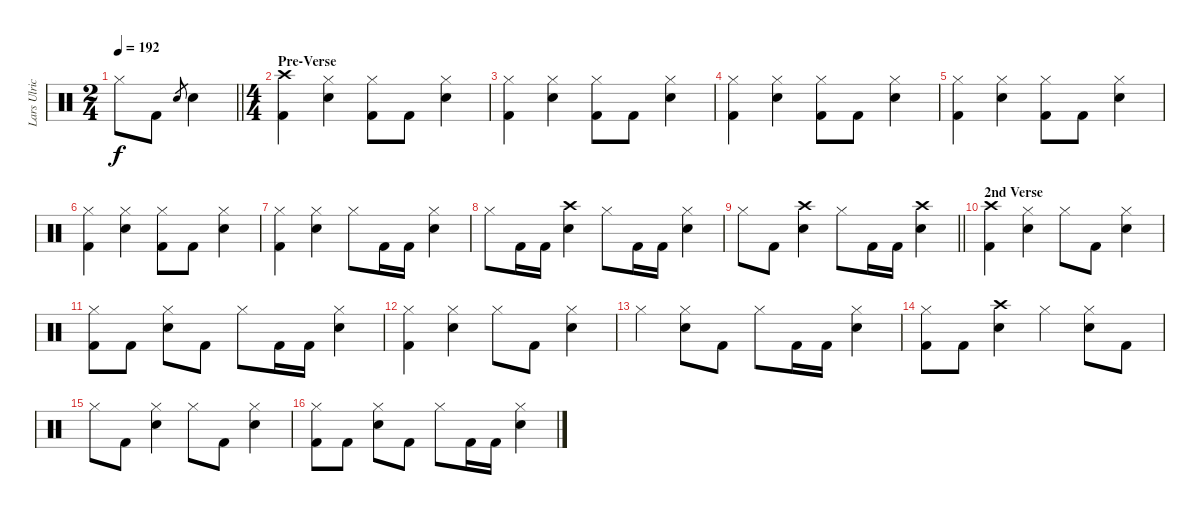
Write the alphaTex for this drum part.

\track ("Lars Ulrich - Drums" "Lars Ulric") {instrument percussion}
\staff {score}
\articulation defaults
\ts (2 4)
\tempo 192
\clef neutral
\barLineRight lightlight
\ks c "Hi-Hat (closed)".8{dy f} "Kick (hit) 2".8 "Snare (hit) 2".8{gr} "Snare (hit) 2".4
|
\ts (4 4)
\section ("" "Pre-Verse")
("Crash high (hit)" "Kick (hit) 2").4 ("Hi-Hat (closed)" "Snare (hit) 2").4 ("Hi-Hat (closed)" "Kick (hit) 2").8 "Kick (hit) 2".8 ("Hi-Hat (closed)" "Snare (hit) 2").4 |
("Hi-Hat (closed)" "Kick (hit) 2").4 ("Hi-Hat (closed)" "Snare (hit) 2").4 ("Hi-Hat (closed)" "Kick (hit) 2").8 "Kick (hit) 2".8 ("Hi-Hat (closed)" "Snare (hit) 2").4 |
("Hi-Hat (closed)" "Kick (hit) 2").4 ("Hi-Hat (closed)" "Snare (hit) 2").4 ("Hi-Hat (closed)" "Kick (hit) 2").8 "Kick (hit) 2".8 ("Hi-Hat (closed)" "Snare (hit) 2").4 |
("Hi-Hat (closed)" "Kick (hit) 2").4 ("Hi-Hat (closed)" "Snare (hit) 2").4 ("Hi-Hat (closed)" "Kick (hit) 2").8 "Kick (hit) 2".8 ("Hi-Hat (closed)" "Snare (hit) 2").4 |
("Hi-Hat (closed)" "Kick (hit) 2").4 ("Hi-Hat (closed)" "Snare (hit) 2").4 ("Hi-Hat (closed)" "Kick (hit) 2").8 "Kick (hit) 2".8 ("Hi-Hat (closed)" "Snare (hit) 2").4 |
("Hi-Hat (closed)" "Kick (hit) 2").4 ("Hi-Hat (closed)" "Snare (hit) 2").4 "Hi-Hat (closed)".8 "Kick (hit) 2".16 "Kick (hit) 2".16 ("Hi-Hat (closed)" "Snare (hit) 2").4 |
"Hi-Hat (closed)".8 "Kick (hit) 2".16 "Kick (hit) 2".16 ("Crash high (hit)" "Snare (hit) 2").4 "Hi-Hat (closed)".8 "Kick (hit) 2".16 "Kick (hit) 2".16 ("Hi-Hat (closed)" "Snare (hit) 2").4 |
\barLineRight lightlight "Hi-Hat (closed)".8 "Kick (hit) 2".8
("Crash high (hit)" "Snare (hit) 2").4 "Hi-Hat (closed)".8 "Kick (hit) 2".16 "Kick (hit) 2".16 ("Crash high (hit)" "Snare (hit) 2").4 |
\section ("" "2nd Verse")
("Crash high (hit)" "Kick (hit) 2").4 ("Hi-Hat (closed)" "Snare (hit) 2").4 "Hi-Hat (closed)".8 "Kick (hit) 2".8 ("Hi-Hat (closed)" "Snare (hit) 2").4 |
("Hi-Hat (closed)" "Kick (hit) 2").8 "Kick (hit) 2".8 ("Hi-Hat (closed)" "Snare (hit) 2").8 "Kick (hit) 2".8 "Hi-Hat (closed)".8 "Kick (hit) 2".16 "Kick (hit) 2".16 ("Hi-Hat (closed)" "Snare (hit) 2").4 |
("Hi-Hat (closed)" "Kick (hit) 2").4 ("Hi-Hat (closed)" "Snare (hit) 2").4 "Hi-Hat (closed)".8 "Kick (hit) 2".8 ("Hi-Hat (closed)" "Snare (hit) 2").4 |
"Hi-Hat (closed)".4 ("Hi-Hat (closed)" "Snare (hit) 2").8 "Kick (hit) 2".8 "Hi-Hat (closed)".8 "Kick (hit) 2".16 "Kick (hit) 2".16 ("Hi-Hat (closed)" "Snare (hit) 2").4 |
("Hi-Hat (closed)" "Kick (hit) 2").8 "Kick (hit) 2".8 ("Crash high (hit)" "Snare (hit) 2").4 "Hi-Hat (closed)".4 ("Hi-Hat (closed)" "Snare (hit) 2").8 "Kick (hit) 2".8 |
"Hi-Hat (closed)".8 "Kick (hit) 2".8 ("Hi-Hat (closed)" "Snare (hit) 2").4 "Hi-Hat (closed)".8 "Kick (hit) 2".8 ("Hi-Hat (closed)" "Snare (hit) 2").4 |
("Hi-Hat (closed)" "Kick (hit) 2").8 "Kick (hit) 2".8 ("Hi-Hat (closed)" "Snare (hit) 2").8 "Kick (hit) 2".8 "Hi-Hat (closed)".8 "Kick (hit) 2".16 "Kick (hit) 2".16 ("Hi-Hat (closed)" "Snare (hit) 2").4
